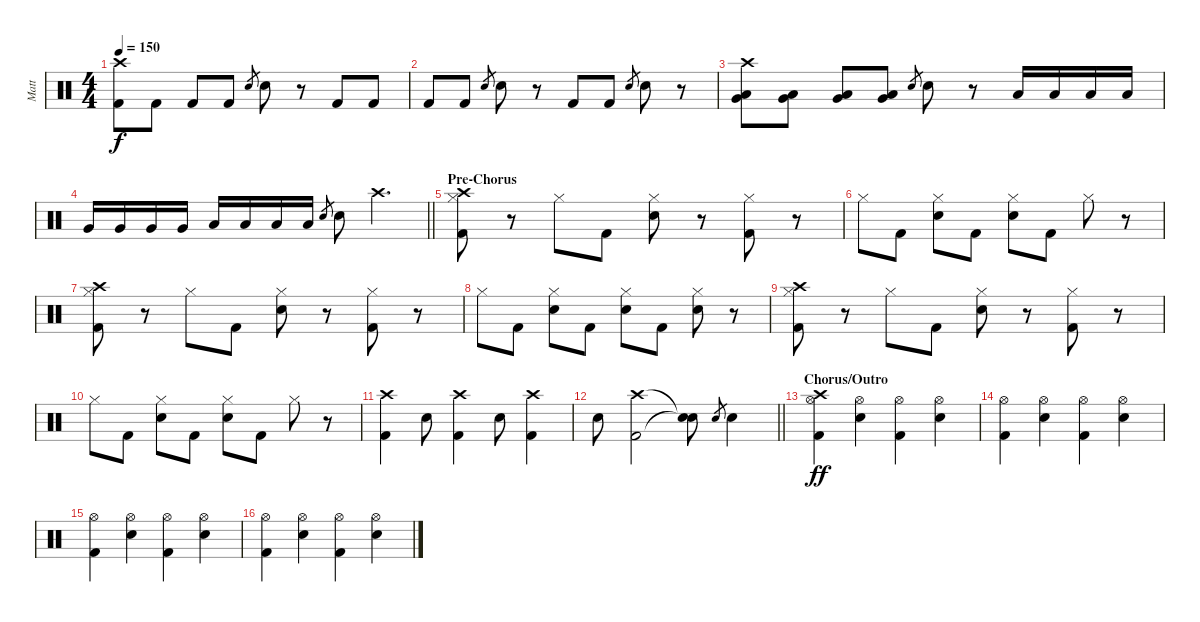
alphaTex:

\track ("Matt" "Matt") {instrument percussion}
\staff {score}
\articulation defaults
\ts (4 4)
\tempo 150
\clef neutral
\ks c
("Crash high (hit)" "Kick (hit) 2").8{dy f} "Kick (hit) 2".8 "Kick (hit) 2".8 "Kick (hit) 2".8 "Snare (hit) 2".8{gr} "Snare (hit) 2".8 r.8 "Kick (hit) 2".8 "Kick (hit) 2".8 |
"Kick (hit) 2".8 "Kick (hit) 2".8 "Snare (hit) 2".8{gr} "Snare (hit) 2".8 r.8 "Kick (hit) 2".8 "Kick (hit) 2".8 "Snare (hit) 2".8{gr} "Snare (hit) 2".8 r.8 |
("Crash high (hit)" "Very Low Tom (hit)" "Low Floor Tom (hit)").8 ("Very Low Tom (hit)" "Low Floor Tom (hit)").8 ("Very Low Tom (hit)" "Low Floor Tom (hit)").8 ("Very Low Tom (hit)" "Low Floor Tom (hit)").8 "Snare (hit) 2".8{gr} "Snare (hit) 2".8 r.8 "Low Tom (hit)".16 "Low Tom (hit)".16 "Low Tom (hit)".16 "Low Tom (hit)".16 |
\barLineRight lightlight "Very Low Tom (hit)".16 "Very Low Tom (hit)".16 "Very Low Tom (hit)".16 "Very Low Tom (hit)".16 "Low Floor Tom (hit)".16 "Low Floor Tom (hit)".16 "Low Floor Tom (hit)".16 "Low Floor Tom (hit)".16 "Snare (hit) 2".8{gr} "Snare (hit) 2".8 "Crash high (hit)".4{d}
|
\section ("" "Pre-Chorus")
("Hi-Hat (closed)" "Kick (hit) 2" "Crash high (hit)").8 r.8 "Hi-Hat (closed)".8 "Kick (hit) 2".8 ("Hi-Hat (closed)" "Snare (hit) 2").8 r.8 ("Hi-Hat (closed)" "Kick (hit) 2").8 r.8 |
"Hi-Hat (closed)".8 "Kick (hit) 2".8 ("Hi-Hat (closed)" "Snare (hit) 2").8 "Kick (hit) 2".8 ("Hi-Hat (closed)" "Snare (hit) 2").8 "Kick (hit) 2".8 "Hi-Hat (closed)".8 r.8 |
("Hi-Hat (closed)" "Kick (hit) 2" "Crash high (hit)").8 r.8 "Hi-Hat (closed)".8 "Kick (hit) 2".8 ("Hi-Hat (closed)" "Snare (hit) 2").8 r.8 ("Hi-Hat (closed)" "Kick (hit) 2").8 r.8 |
"Hi-Hat (closed)".8 "Kick (hit) 2".8 ("Hi-Hat (closed)" "Snare (hit) 2").8 "Kick (hit) 2".8 ("Hi-Hat (closed)" "Snare (hit) 2").8 "Kick (hit) 2".8 ("Hi-Hat (closed)" "Snare (hit) 2").8 r.8 |
("Hi-Hat (closed)" "Kick (hit) 2" "Crash high (hit)").8 r.8 "Hi-Hat (closed)".8 "Kick (hit) 2".8 ("Hi-Hat (closed)" "Snare (hit) 2").8 r.8 ("Hi-Hat (closed)" "Kick (hit) 2").8 r.8 |
"Hi-Hat (closed)".8 "Kick (hit) 2".8 ("Hi-Hat (closed)" "Snare (hit) 2").8 "Kick (hit) 2".8 ("Hi-Hat (closed)" "Snare (hit) 2").8 "Kick (hit) 2".8 "Hi-Hat (closed)".8 r.8 |
("Kick (hit) 2" "Crash high (hit)").4 "Snare (hit) 2".8 ("Kick (hit) 2" "Crash high (hit)").4 "Snare (hit) 2".8 ("Kick (hit) 2" "Crash high (hit)").4 |
\barLineRight lightlight "Snare (hit) 2".8
("Kick (hit) 2" "Crash high (hit)").2 ("Snare (hit)"{t} "Snare (hit)"{t}).8 "Snare (hit) 2".8{gr} "Snare (hit) 2".4 |
\section ("" "Chorus/Outro")
("Hi-Hat (open)" "Kick (hit) 2" "Crash high (hit)").4{dy ff} ("Hi-Hat (open)" "Snare (hit) 2").4 ("Hi-Hat (open)" "Kick (hit) 2").4 ("Hi-Hat (open)" "Snare (hit) 2").4 |
("Hi-Hat (open)" "Kick (hit) 2").4 ("Hi-Hat (open)" "Snare (hit) 2").4 ("Hi-Hat (open)" "Kick (hit) 2").4 ("Hi-Hat (open)" "Snare (hit) 2").4 |
("Hi-Hat (open)" "Kick (hit) 2").4 ("Hi-Hat (open)" "Snare (hit) 2").4 ("Hi-Hat (open)" "Kick (hit) 2").4 ("Hi-Hat (open)" "Snare (hit) 2").4 |
("Hi-Hat (open)" "Kick (hit) 2").4 ("Hi-Hat (open)" "Snare (hit) 2").4 ("Hi-Hat (open)" "Kick (hit) 2").4 ("Hi-Hat (open)" "Snare (hit) 2").4
